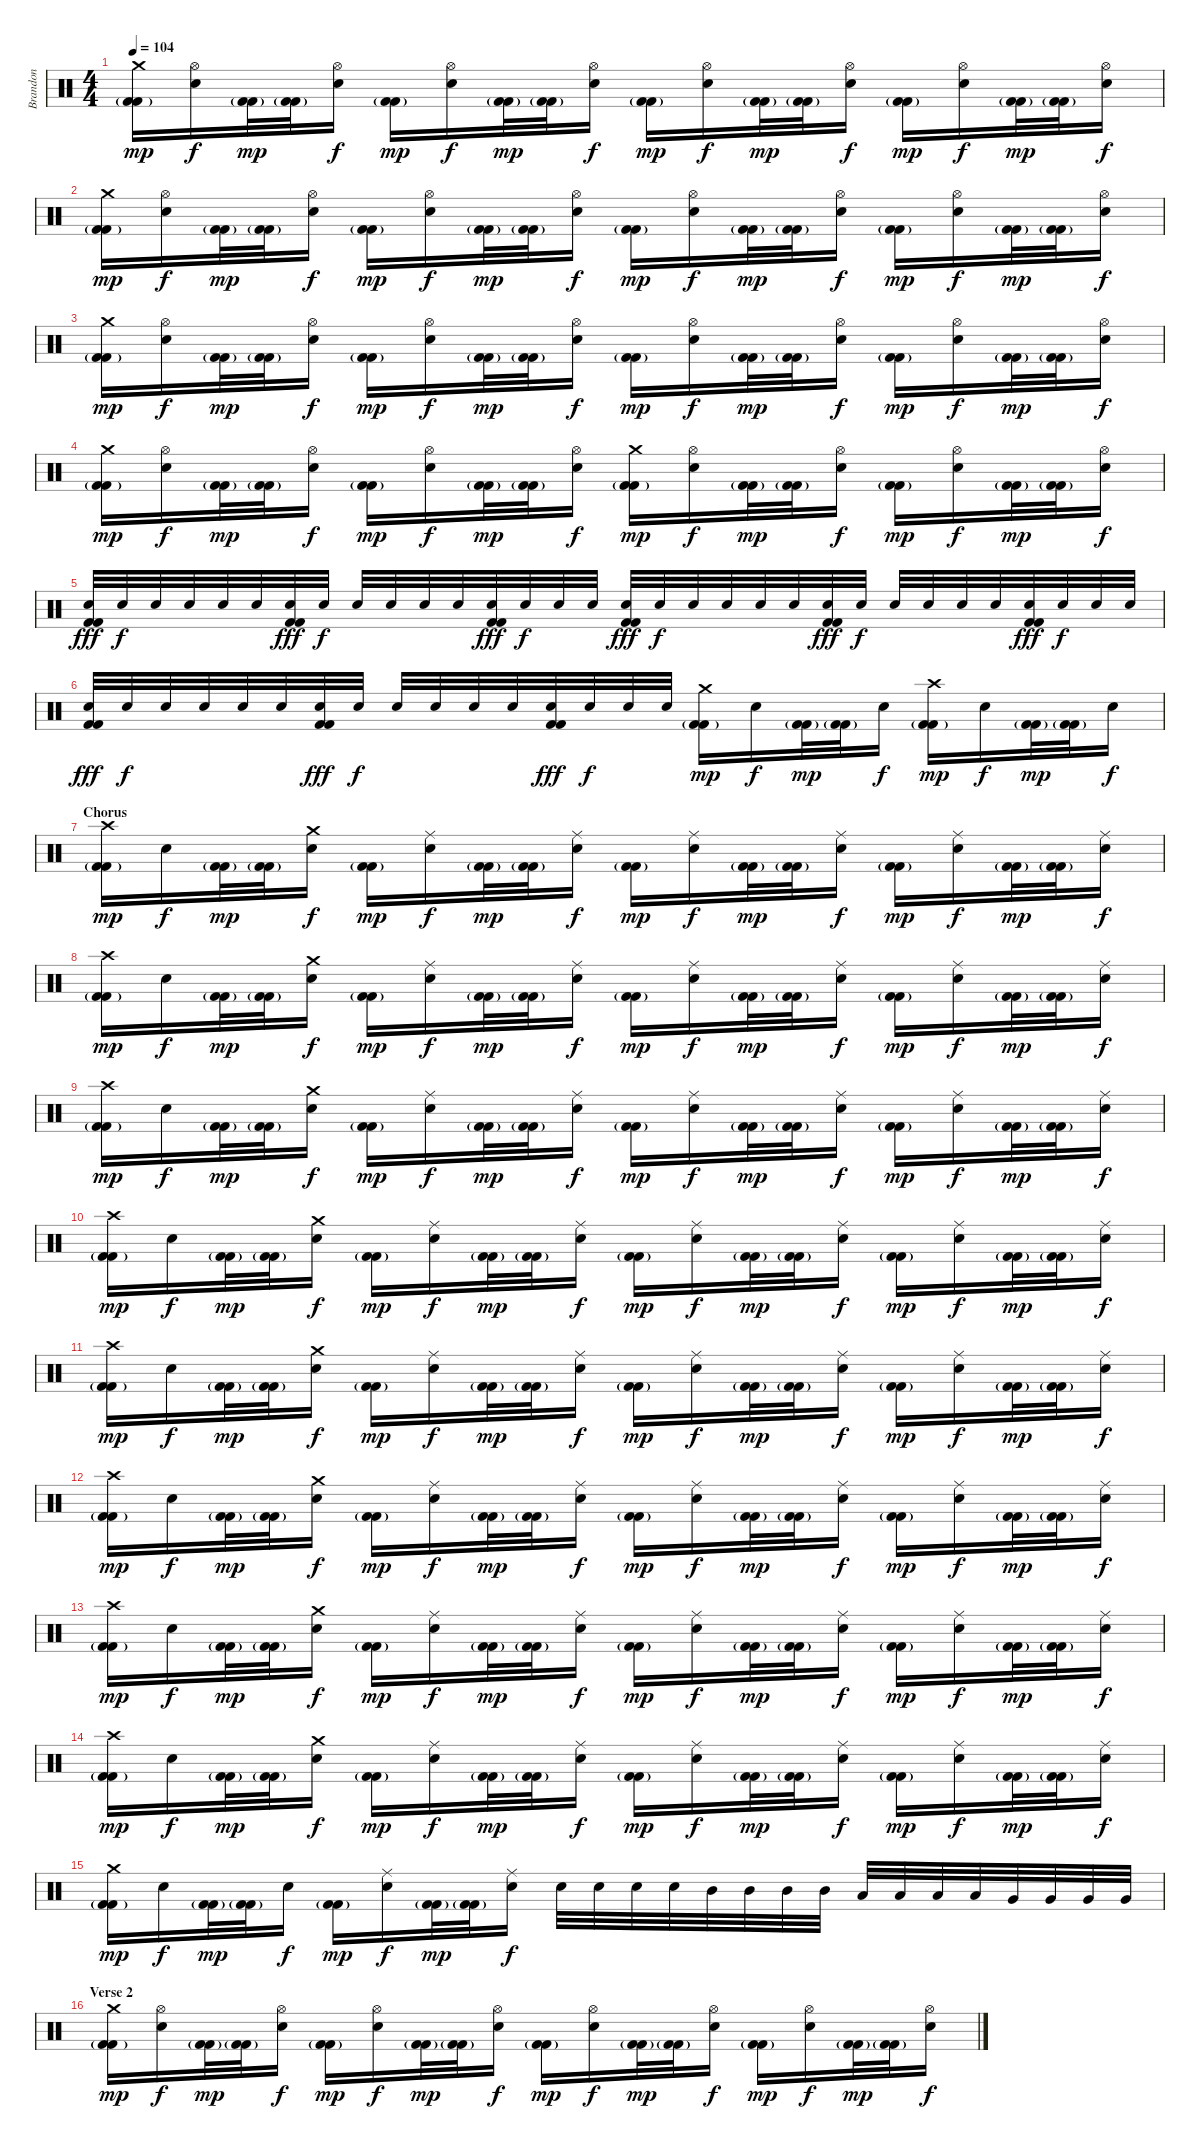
\track ("Brandon" "Brandon") {instrument percussion}
\staff {score}
\articulation defaults
\ts (4 4)
\tempo 104
\clef neutral
\ks c
("Crash medium (hit)" "Kick (hit) 2"{g} "Kick (hit) 2").16{dy mp} ("Hi-Hat (open)" "Electric Snare (hit)").16{dy f} ("Kick (hit) 2"{g} "Kick (hit) 2").32{dy mp} ("Kick (hit) 2"{g} "Kick (hit) 2").32 ("Hi-Hat (open)" "Electric Snare (hit)").16{dy f} ("Kick (hit) 2"{g} "Kick (hit) 2").16{dy mp} ("Hi-Hat (open)" "Electric Snare (hit)").16{dy f} ("Kick (hit) 2"{g} "Kick (hit) 2").32{dy mp} ("Kick (hit) 2"{g} "Kick (hit) 2").32 ("Hi-Hat (open)" "Electric Snare (hit)").16{dy f} ("Kick (hit) 2"{g} "Kick (hit) 2").16{dy mp} ("Hi-Hat (open)" "Electric Snare (hit)").16{dy f} ("Kick (hit) 2"{g} "Kick (hit) 2").32{dy mp} ("Kick (hit) 2"{g} "Kick (hit) 2").32 ("Hi-Hat (open)" "Electric Snare (hit)").16{dy f} ("Kick (hit) 2"{g} "Kick (hit) 2").16{dy mp} ("Hi-Hat (open)" "Electric Snare (hit)").16{dy f} ("Kick (hit) 2"{g} "Kick (hit) 2").32{dy mp} ("Kick (hit) 2"{g} "Kick (hit) 2").32 ("Hi-Hat (open)" "Electric Snare (hit)").16{dy f} |
("Crash medium (hit)" "Kick (hit) 2"{g} "Kick (hit) 2").16{dy mp} ("Hi-Hat (open)" "Electric Snare (hit)").16{dy f} ("Kick (hit) 2"{g} "Kick (hit) 2").32{dy mp} ("Kick (hit) 2"{g} "Kick (hit) 2").32 ("Hi-Hat (open)" "Electric Snare (hit)").16{dy f} ("Kick (hit) 2"{g} "Kick (hit) 2").16{dy mp} ("Hi-Hat (open)" "Electric Snare (hit)").16{dy f} ("Kick (hit) 2"{g} "Kick (hit) 2").32{dy mp} ("Kick (hit) 2"{g} "Kick (hit) 2").32 ("Hi-Hat (open)" "Electric Snare (hit)").16{dy f} ("Kick (hit) 2"{g} "Kick (hit) 2").16{dy mp} ("Hi-Hat (open)" "Electric Snare (hit)").16{dy f} ("Kick (hit) 2"{g} "Kick (hit) 2").32{dy mp} ("Kick (hit) 2"{g} "Kick (hit) 2").32 ("Hi-Hat (open)" "Electric Snare (hit)").16{dy f} ("Kick (hit) 2"{g} "Kick (hit) 2").16{dy mp} ("Hi-Hat (open)" "Electric Snare (hit)").16{dy f} ("Kick (hit) 2"{g} "Kick (hit) 2").32{dy mp} ("Kick (hit) 2"{g} "Kick (hit) 2").32 ("Hi-Hat (open)" "Electric Snare (hit)").16{dy f} |
("Crash medium (hit)" "Kick (hit) 2"{g} "Kick (hit) 2").16{dy mp} ("Hi-Hat (open)" "Electric Snare (hit)").16{dy f} ("Kick (hit) 2"{g} "Kick (hit) 2").32{dy mp} ("Kick (hit) 2"{g} "Kick (hit) 2").32 ("Hi-Hat (open)" "Electric Snare (hit)").16{dy f} ("Kick (hit) 2"{g} "Kick (hit) 2").16{dy mp} ("Hi-Hat (open)" "Electric Snare (hit)").16{dy f} ("Kick (hit) 2"{g} "Kick (hit) 2").32{dy mp} ("Kick (hit) 2"{g} "Kick (hit) 2").32 ("Hi-Hat (open)" "Electric Snare (hit)").16{dy f} ("Kick (hit) 2"{g} "Kick (hit) 2").16{dy mp} ("Hi-Hat (open)" "Electric Snare (hit)").16{dy f} ("Kick (hit) 2"{g} "Kick (hit) 2").32{dy mp} ("Kick (hit) 2"{g} "Kick (hit) 2").32 ("Hi-Hat (open)" "Electric Snare (hit)").16{dy f} ("Kick (hit) 2"{g} "Kick (hit) 2").16{dy mp} ("Hi-Hat (open)" "Electric Snare (hit)").16{dy f} ("Kick (hit) 2"{g} "Kick (hit) 2").32{dy mp} ("Kick (hit) 2"{g} "Kick (hit) 2").32 ("Hi-Hat (open)" "Electric Snare (hit)").16{dy f} |
("Crash medium (hit)" "Kick (hit) 2"{g} "Kick (hit) 2").16{dy mp} ("Hi-Hat (open)" "Electric Snare (hit)").16{dy f} ("Kick (hit) 2"{g} "Kick (hit) 2").32{dy mp} ("Kick (hit) 2"{g} "Kick (hit) 2").32 ("Hi-Hat (open)" "Electric Snare (hit)").16{dy f} ("Kick (hit) 2"{g} "Kick (hit) 2").16{dy mp} ("Hi-Hat (open)" "Electric Snare (hit)").16{dy f} ("Kick (hit) 2"{g} "Kick (hit) 2").32{dy mp} ("Kick (hit) 2"{g} "Kick (hit) 2").32 ("Hi-Hat (open)" "Electric Snare (hit)").16{dy f} ("Crash medium (hit)" "Kick (hit) 2"{g} "Kick (hit) 2").16{dy mp} ("Hi-Hat (open)" "Electric Snare (hit)").16{dy f} ("Kick (hit) 2"{g} "Kick (hit) 2").32{dy mp} ("Kick (hit) 2"{g} "Kick (hit) 2").32 ("Hi-Hat (open)" "Electric Snare (hit)").16{dy f} ("Kick (hit) 2"{g} "Kick (hit) 2").16{dy mp} ("Hi-Hat (open)" "Electric Snare (hit)").16{dy f} ("Kick (hit) 2"{g} "Kick (hit) 2").32{dy mp} ("Kick (hit) 2"{g} "Kick (hit) 2").32 ("Hi-Hat (open)" "Electric Snare (hit)").16{dy f} |
("Electric Snare (hit)" "Kick (hit) 2" "Kick (hit) 2").32{dy fff} "Electric Snare (hit)".32{dy f} "Electric Snare (hit)".32 "Electric Snare (hit)".32 "Electric Snare (hit)".32 "Electric Snare (hit)".32 ("Electric Snare (hit)" "Kick (hit) 2" "Kick (hit) 2").32{dy fff} "Electric Snare (hit)".32{dy f} "Electric Snare (hit)".32 "Electric Snare (hit)".32 "Electric Snare (hit)".32 "Electric Snare (hit)".32 ("Electric Snare (hit)" "Kick (hit) 2" "Kick (hit) 2").32{dy fff} "Electric Snare (hit)".32{dy f} "Electric Snare (hit)".32 "Electric Snare (hit)".32 ("Electric Snare (hit)" "Kick (hit) 2" "Kick (hit) 2").32{dy fff} "Electric Snare (hit)".32{dy f} "Electric Snare (hit)".32 "Electric Snare (hit)".32 "Electric Snare (hit)".32 "Electric Snare (hit)".32 ("Electric Snare (hit)" "Kick (hit) 2" "Kick (hit) 2").32{dy fff} "Electric Snare (hit)".32{dy f} "Electric Snare (hit)".32 "Electric Snare (hit)".32 "Electric Snare (hit)".32 "Electric Snare (hit)".32 ("Electric Snare (hit)" "Kick (hit) 2" "Kick (hit) 2").32{dy fff} "Electric Snare (hit)".32{dy f} "Electric Snare (hit)".32 "Electric Snare (hit)".32 |
("Electric Snare (hit)" "Kick (hit) 2" "Kick (hit) 2").32{dy fff} "Electric Snare (hit)".32{dy f} "Electric Snare (hit)".32 "Electric Snare (hit)".32 "Electric Snare (hit)".32 "Electric Snare (hit)".32 ("Electric Snare (hit)" "Kick (hit) 2" "Kick (hit) 2").32{dy fff} "Electric Snare (hit)".32{dy f} "Electric Snare (hit)".32 "Electric Snare (hit)".32 "Electric Snare (hit)".32 "Electric Snare (hit)".32 ("Electric Snare (hit)" "Kick (hit) 2" "Kick (hit) 2").32{dy fff} "Electric Snare (hit)".32{dy f} "Electric Snare (hit)".32 "Electric Snare (hit)".32 ("Crash medium (hit)" "Kick (hit) 2"{g} "Kick (hit) 2").16{dy mp} "Electric Snare (hit)".16{dy f} ("Kick (hit) 2"{g} "Kick (hit) 2").32{dy mp} ("Kick (hit) 2"{g} "Kick (hit) 2").32 "Electric Snare (hit)".16{dy f} ("Crash high (hit)" "Kick (hit) 2"{g} "Kick (hit) 2").16{dy mp} "Electric Snare (hit)".16{dy f} ("Kick (hit) 2"{g} "Kick (hit) 2").32{dy mp} ("Kick (hit) 2"{g} "Kick (hit) 2").32 "Electric Snare (hit)".16{dy f} |
\section ("" "Chorus")
("Crash high (hit)" "Kick (hit) 2"{g} "Kick (hit) 2").16{dy mp} "Electric Snare (hit)".16{dy f} ("Kick (hit) 2"{g} "Kick (hit) 2").32{dy mp} ("Kick (hit) 2"{g} "Kick (hit) 2").32 ("Crash medium (hit)" "Electric Snare (hit)").16{dy f} ("Kick (hit) 2"{g} "Kick (hit) 2").16{dy mp} ("Ride (middle)" "Electric Snare (hit)").16{dy f} ("Kick (hit) 2"{g} "Kick (hit) 2").32{dy mp} ("Kick (hit) 2"{g} "Kick (hit) 2").32 ("Ride (middle)" "Electric Snare (hit)").16{dy f} ("Kick (hit) 2"{g} "Kick (hit) 2").16{dy mp} ("Ride (middle)" "Electric Snare (hit)").16{dy f} ("Kick (hit) 2"{g} "Kick (hit) 2").32{dy mp} ("Kick (hit) 2"{g} "Kick (hit) 2").32 ("Ride (middle)" "Electric Snare (hit)").16{dy f} ("Kick (hit) 2"{g} "Kick (hit) 2").16{dy mp} ("Ride (middle)" "Electric Snare (hit)").16{dy f} ("Kick (hit) 2"{g} "Kick (hit) 2").32{dy mp} ("Kick (hit) 2"{g} "Kick (hit) 2").32 ("Ride (middle)" "Electric Snare (hit)").16{dy f} |
("Crash high (hit)" "Kick (hit) 2"{g} "Kick (hit) 2").16{dy mp} "Electric Snare (hit)".16{dy f} ("Kick (hit) 2"{g} "Kick (hit) 2").32{dy mp} ("Kick (hit) 2"{g} "Kick (hit) 2").32 ("Crash medium (hit)" "Electric Snare (hit)").16{dy f} ("Kick (hit) 2"{g} "Kick (hit) 2").16{dy mp} ("Ride (middle)" "Electric Snare (hit)").16{dy f} ("Kick (hit) 2"{g} "Kick (hit) 2").32{dy mp} ("Kick (hit) 2"{g} "Kick (hit) 2").32 ("Ride (middle)" "Electric Snare (hit)").16{dy f} ("Kick (hit) 2"{g} "Kick (hit) 2").16{dy mp} ("Ride (middle)" "Electric Snare (hit)").16{dy f} ("Kick (hit) 2"{g} "Kick (hit) 2").32{dy mp} ("Kick (hit) 2"{g} "Kick (hit) 2").32 ("Ride (middle)" "Electric Snare (hit)").16{dy f} ("Kick (hit) 2"{g} "Kick (hit) 2").16{dy mp} ("Ride (middle)" "Electric Snare (hit)").16{dy f} ("Kick (hit) 2"{g} "Kick (hit) 2").32{dy mp} ("Kick (hit) 2"{g} "Kick (hit) 2").32 ("Ride (middle)" "Electric Snare (hit)").16{dy f} |
("Crash high (hit)" "Kick (hit) 2"{g} "Kick (hit) 2").16{dy mp} "Electric Snare (hit)".16{dy f} ("Kick (hit) 2"{g} "Kick (hit) 2").32{dy mp} ("Kick (hit) 2"{g} "Kick (hit) 2").32 ("Crash medium (hit)" "Electric Snare (hit)").16{dy f} ("Kick (hit) 2"{g} "Kick (hit) 2").16{dy mp} ("Ride (middle)" "Electric Snare (hit)").16{dy f} ("Kick (hit) 2"{g} "Kick (hit) 2").32{dy mp} ("Kick (hit) 2"{g} "Kick (hit) 2").32 ("Ride (middle)" "Electric Snare (hit)").16{dy f} ("Kick (hit) 2"{g} "Kick (hit) 2").16{dy mp} ("Ride (middle)" "Electric Snare (hit)").16{dy f} ("Kick (hit) 2"{g} "Kick (hit) 2").32{dy mp} ("Kick (hit) 2"{g} "Kick (hit) 2").32 ("Ride (middle)" "Electric Snare (hit)").16{dy f} ("Kick (hit) 2"{g} "Kick (hit) 2").16{dy mp} ("Ride (middle)" "Electric Snare (hit)").16{dy f} ("Kick (hit) 2"{g} "Kick (hit) 2").32{dy mp} ("Kick (hit) 2"{g} "Kick (hit) 2").32 ("Ride (middle)" "Electric Snare (hit)").16{dy f} |
("Crash high (hit)" "Kick (hit) 2"{g} "Kick (hit) 2").16{dy mp} "Electric Snare (hit)".16{dy f} ("Kick (hit) 2"{g} "Kick (hit) 2").32{dy mp} ("Kick (hit) 2"{g} "Kick (hit) 2").32 ("Crash medium (hit)" "Electric Snare (hit)").16{dy f} ("Kick (hit) 2"{g} "Kick (hit) 2").16{dy mp} ("Ride (middle)" "Electric Snare (hit)").16{dy f} ("Kick (hit) 2"{g} "Kick (hit) 2").32{dy mp} ("Kick (hit) 2"{g} "Kick (hit) 2").32 ("Ride (middle)" "Electric Snare (hit)").16{dy f} ("Kick (hit) 2"{g} "Kick (hit) 2").16{dy mp} ("Ride (middle)" "Electric Snare (hit)").16{dy f} ("Kick (hit) 2"{g} "Kick (hit) 2").32{dy mp} ("Kick (hit) 2"{g} "Kick (hit) 2").32 ("Ride (middle)" "Electric Snare (hit)").16{dy f} ("Kick (hit) 2"{g} "Kick (hit) 2").16{dy mp} ("Ride (middle)" "Electric Snare (hit)").16{dy f} ("Kick (hit) 2"{g} "Kick (hit) 2").32{dy mp} ("Kick (hit) 2"{g} "Kick (hit) 2").32 ("Ride (middle)" "Electric Snare (hit)").16{dy f} |
("Crash high (hit)" "Kick (hit) 2"{g} "Kick (hit) 2").16{dy mp} "Electric Snare (hit)".16{dy f} ("Kick (hit) 2"{g} "Kick (hit) 2").32{dy mp} ("Kick (hit) 2"{g} "Kick (hit) 2").32 ("Crash medium (hit)" "Electric Snare (hit)").16{dy f} ("Kick (hit) 2"{g} "Kick (hit) 2").16{dy mp} ("Ride (middle)" "Electric Snare (hit)").16{dy f} ("Kick (hit) 2"{g} "Kick (hit) 2").32{dy mp} ("Kick (hit) 2"{g} "Kick (hit) 2").32 ("Ride (middle)" "Electric Snare (hit)").16{dy f} ("Kick (hit) 2"{g} "Kick (hit) 2").16{dy mp} ("Ride (middle)" "Electric Snare (hit)").16{dy f} ("Kick (hit) 2"{g} "Kick (hit) 2").32{dy mp} ("Kick (hit) 2"{g} "Kick (hit) 2").32 ("Ride (middle)" "Electric Snare (hit)").16{dy f} ("Kick (hit) 2"{g} "Kick (hit) 2").16{dy mp} ("Ride (middle)" "Electric Snare (hit)").16{dy f} ("Kick (hit) 2"{g} "Kick (hit) 2").32{dy mp} ("Kick (hit) 2"{g} "Kick (hit) 2").32 ("Ride (middle)" "Electric Snare (hit)").16{dy f} |
("Crash high (hit)" "Kick (hit) 2"{g} "Kick (hit) 2").16{dy mp} "Electric Snare (hit)".16{dy f} ("Kick (hit) 2"{g} "Kick (hit) 2").32{dy mp} ("Kick (hit) 2"{g} "Kick (hit) 2").32 ("Crash medium (hit)" "Electric Snare (hit)").16{dy f} ("Kick (hit) 2"{g} "Kick (hit) 2").16{dy mp} ("Ride (middle)" "Electric Snare (hit)").16{dy f} ("Kick (hit) 2"{g} "Kick (hit) 2").32{dy mp} ("Kick (hit) 2"{g} "Kick (hit) 2").32 ("Ride (middle)" "Electric Snare (hit)").16{dy f} ("Kick (hit) 2"{g} "Kick (hit) 2").16{dy mp} ("Ride (middle)" "Electric Snare (hit)").16{dy f} ("Kick (hit) 2"{g} "Kick (hit) 2").32{dy mp} ("Kick (hit) 2"{g} "Kick (hit) 2").32 ("Ride (middle)" "Electric Snare (hit)").16{dy f} ("Kick (hit) 2"{g} "Kick (hit) 2").16{dy mp} ("Ride (middle)" "Electric Snare (hit)").16{dy f} ("Kick (hit) 2"{g} "Kick (hit) 2").32{dy mp} ("Kick (hit) 2"{g} "Kick (hit) 2").32 ("Ride (middle)" "Electric Snare (hit)").16{dy f} |
("Crash high (hit)" "Kick (hit) 2"{g} "Kick (hit) 2").16{dy mp} "Electric Snare (hit)".16{dy f} ("Kick (hit) 2"{g} "Kick (hit) 2").32{dy mp} ("Kick (hit) 2"{g} "Kick (hit) 2").32 ("Crash medium (hit)" "Electric Snare (hit)").16{dy f} ("Kick (hit) 2"{g} "Kick (hit) 2").16{dy mp} ("Ride (middle)" "Electric Snare (hit)").16{dy f} ("Kick (hit) 2"{g} "Kick (hit) 2").32{dy mp} ("Kick (hit) 2"{g} "Kick (hit) 2").32 ("Ride (middle)" "Electric Snare (hit)").16{dy f} ("Kick (hit) 2"{g} "Kick (hit) 2").16{dy mp} ("Ride (middle)" "Electric Snare (hit)").16{dy f} ("Kick (hit) 2"{g} "Kick (hit) 2").32{dy mp} ("Kick (hit) 2"{g} "Kick (hit) 2").32 ("Ride (middle)" "Electric Snare (hit)").16{dy f} ("Kick (hit) 2"{g} "Kick (hit) 2").16{dy mp} ("Ride (middle)" "Electric Snare (hit)").16{dy f} ("Kick (hit) 2"{g} "Kick (hit) 2").32{dy mp} ("Kick (hit) 2"{g} "Kick (hit) 2").32 ("Ride (middle)" "Electric Snare (hit)").16{dy f} |
("Crash high (hit)" "Kick (hit) 2"{g} "Kick (hit) 2").16{dy mp} "Electric Snare (hit)".16{dy f} ("Kick (hit) 2"{g} "Kick (hit) 2").32{dy mp} ("Kick (hit) 2"{g} "Kick (hit) 2").32 ("Crash medium (hit)" "Electric Snare (hit)").16{dy f} ("Kick (hit) 2"{g} "Kick (hit) 2").16{dy mp} ("Ride (middle)" "Electric Snare (hit)").16{dy f} ("Kick (hit) 2"{g} "Kick (hit) 2").32{dy mp} ("Kick (hit) 2"{g} "Kick (hit) 2").32 ("Ride (middle)" "Electric Snare (hit)").16{dy f} ("Kick (hit) 2"{g} "Kick (hit) 2").16{dy mp} ("Ride (middle)" "Electric Snare (hit)").16{dy f} ("Kick (hit) 2"{g} "Kick (hit) 2").32{dy mp} ("Kick (hit) 2"{g} "Kick (hit) 2").32 ("Ride (middle)" "Electric Snare (hit)").16{dy f} ("Kick (hit) 2"{g} "Kick (hit) 2").16{dy mp} ("Ride (middle)" "Electric Snare (hit)").16{dy f} ("Kick (hit) 2"{g} "Kick (hit) 2").32{dy mp} ("Kick (hit) 2"{g} "Kick (hit) 2").32 ("Ride (middle)" "Electric Snare (hit)").16{dy f} |
("Crash medium (hit)" "Kick (hit) 2"{g} "Kick (hit) 2").16{dy mp} "Electric Snare (hit)".16{dy f} ("Kick (hit) 2"{g} "Kick (hit) 2").32{dy mp} ("Kick (hit) 2"{g} "Kick (hit) 2").32 "Electric Snare (hit)".16{dy f} ("Kick (hit) 2"{g} "Kick (hit) 2").16{dy mp} ("Ride (middle)" "Electric Snare (hit)").16{dy f} ("Kick (hit) 2"{g} "Kick (hit) 2").32{dy mp} ("Kick (hit) 2"{g} "Kick (hit) 2").32 ("Ride (middle)" "Electric Snare (hit)").16{dy f} "Electric Snare (hit)".32 "Electric Snare (hit)".32 "Electric Snare (hit)".32 "Electric Snare (hit)".32 "Mid Tom (hit)".32 "Mid Tom (hit)".32 "Mid Tom (hit)".32 "Mid Tom (hit)".32 "Low Tom (hit)".32 "Low Tom (hit)".32 "Low Tom (hit)".32 "Low Tom (hit)".32 "Very Low Tom (hit)".32 "Very Low Tom (hit)".32 "Very Low Tom (hit)".32 "Very Low Tom (hit)".32 |
\section ("" "Verse 2")
("Crash medium (hit)" "Kick (hit) 2"{g} "Kick (hit) 2").16{dy mp} ("Hi-Hat (open)" "Electric Snare (hit)").16{dy f} ("Kick (hit) 2"{g} "Kick (hit) 2").32{dy mp} ("Kick (hit) 2"{g} "Kick (hit) 2").32 ("Hi-Hat (open)" "Electric Snare (hit)").16{dy f} ("Kick (hit) 2"{g} "Kick (hit) 2").16{dy mp} ("Hi-Hat (open)" "Electric Snare (hit)").16{dy f} ("Kick (hit) 2"{g} "Kick (hit) 2").32{dy mp} ("Kick (hit) 2"{g} "Kick (hit) 2").32 ("Hi-Hat (open)" "Electric Snare (hit)").16{dy f} ("Kick (hit) 2"{g} "Kick (hit) 2").16{dy mp} ("Hi-Hat (open)" "Electric Snare (hit)").16{dy f} ("Kick (hit) 2"{g} "Kick (hit) 2").32{dy mp} ("Kick (hit) 2"{g} "Kick (hit) 2").32 ("Hi-Hat (open)" "Electric Snare (hit)").16{dy f} ("Kick (hit) 2"{g} "Kick (hit) 2").16{dy mp} ("Hi-Hat (open)" "Electric Snare (hit)").16{dy f} ("Kick (hit) 2"{g} "Kick (hit) 2").32{dy mp} ("Kick (hit) 2"{g} "Kick (hit) 2").32 ("Hi-Hat (open)" "Electric Snare (hit)").16{dy f}
